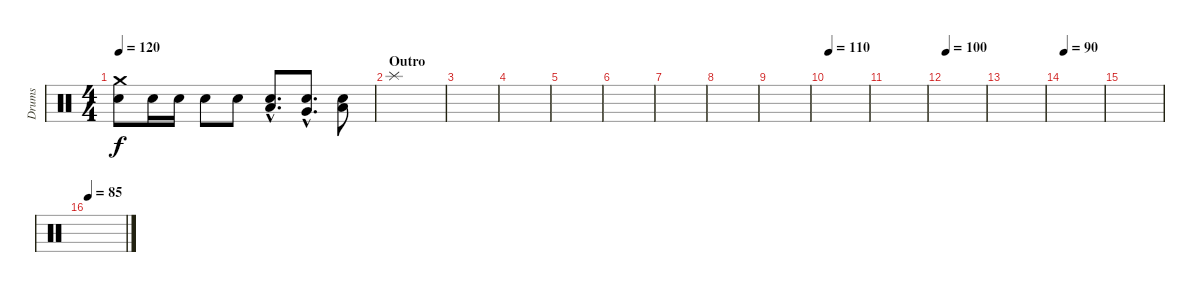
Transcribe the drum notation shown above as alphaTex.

\track ("Drums" "Drums") {instrument percussion}
\staff {score}
\articulation defaults
\ts (4 4)
\tempo 120
\clef neutral
\ks c
("Crash medium (hit)" "Snare (hit) 2").8{dy f} "Snare (hit) 2".16 "Snare (hit) 2".16 "Snare (hit) 2".8 "Snare (hit) 2".8 ("Low Tom (hit)"{hac} "Snare (hit) 2"{hac}).8{d} ("Very Low Tom (hit)"{hac} "Snare (hit) 2"{hac}).8{d} ("Low Floor Tom (hit)" "Snare (hit) 2").8 |
\section ("" "Outro")
"Splash (hit)".1 |
|
|
|
|
|
|
|
\tempo 110
|
|
\tempo 100
|
|
\tempo 90
|
|
\tempo 85
